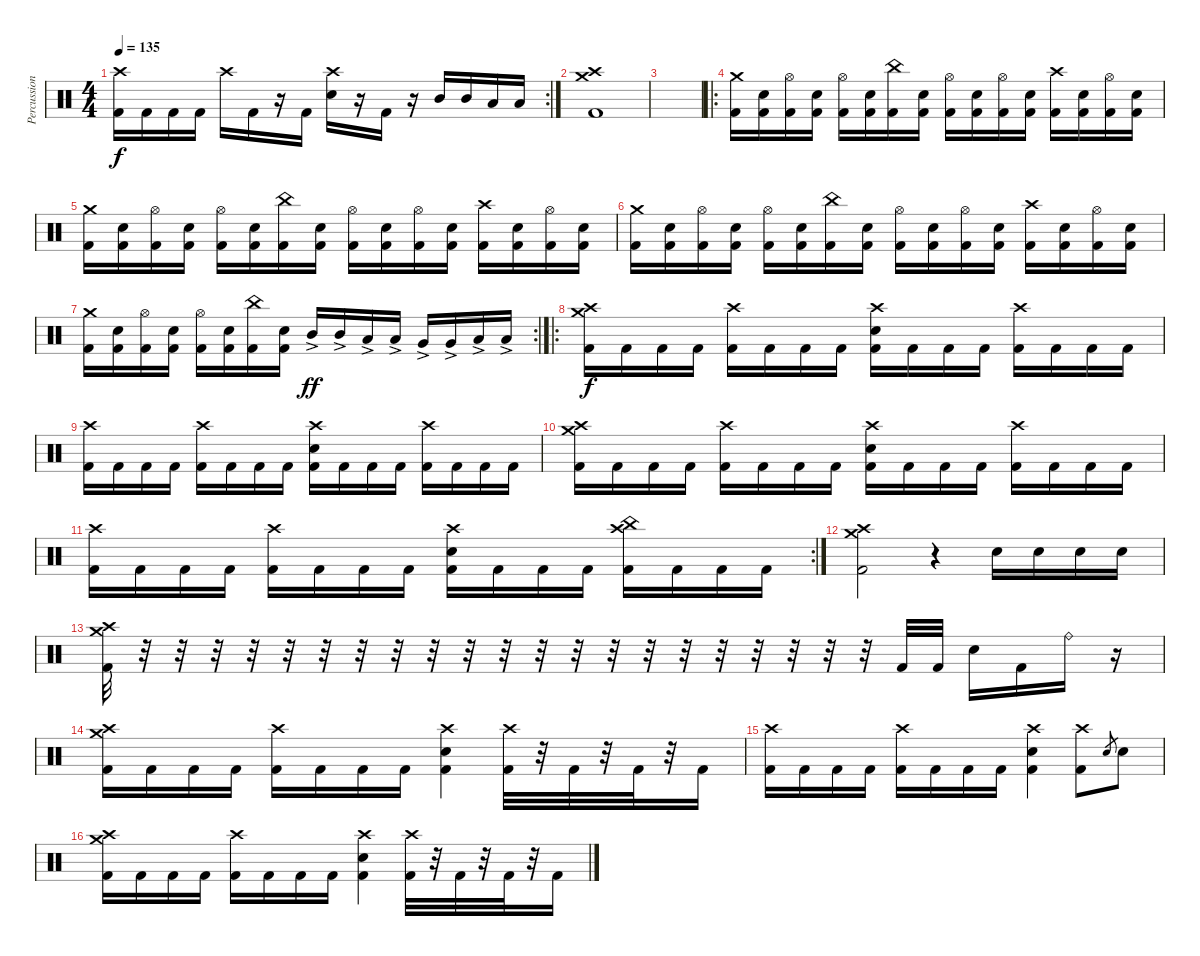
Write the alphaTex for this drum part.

\track ("Percussion" "Percussion") {instrument percussion}
\staff {score}
\articulation defaults
\rc 2
\ts (4 4)
\tempo 135
\clef neutral
\ks c
("Crash high (hit)" "Kick (hit) 2").16{dy f} "Kick (hit) 2".16 "Kick (hit) 2".16 "Kick (hit) 2".16 "Crash high (hit)".16 "Kick (hit) 2".16 r.16 "Kick (hit) 2".16 ("Crash high (hit)" "Snare (hit) 2").16 r.16 "Kick (hit) 2".16 r.16 "Mid Tom (hit)".16 "Mid Tom (hit)".16 "Low Tom (hit)".16 "Low Tom (hit)".16 |
("Crash high (hit)" "Kick (hit) 2" "Crash medium (hit)").1 |
|
\ro
("Crash medium (hit)" "Kick (hit) 2").16 ("Snare (hit) 2" "Kick (hit) 2").16 ("Hi-Hat (open)" "Kick (hit) 2").16 ("Snare (hit) 2" "Kick (hit) 2").16 ("Hi-Hat (open)" "Kick (hit) 2").16 ("Snare (hit) 2" "Kick (hit) 2").16 ("China (hit)" "Kick (hit) 2").16 ("Snare (hit) 2" "Kick (hit) 2").16 ("Hi-Hat (open)" "Kick (hit) 2").16 ("Snare (hit) 2" "Kick (hit) 2").16 ("Hi-Hat (open)" "Kick (hit) 2").16 ("Snare (hit) 2" "Kick (hit) 2").16 ("Crash high (hit)" "Kick (hit) 2").16 ("Snare (hit) 2" "Kick (hit) 2").16 ("Hi-Hat (open)" "Kick (hit) 2").16 ("Snare (hit) 2" "Kick (hit) 2").16 |
("Crash medium (hit)" "Kick (hit) 2").16 ("Snare (hit) 2" "Kick (hit) 2").16 ("Hi-Hat (open)" "Kick (hit) 2").16 ("Snare (hit) 2" "Kick (hit) 2").16 ("Hi-Hat (open)" "Kick (hit) 2").16 ("Snare (hit) 2" "Kick (hit) 2").16 ("China (hit)" "Kick (hit) 2").16 ("Snare (hit) 2" "Kick (hit) 2").16 ("Hi-Hat (open)" "Kick (hit) 2").16 ("Snare (hit) 2" "Kick (hit) 2").16 ("Hi-Hat (open)" "Kick (hit) 2").16 ("Snare (hit) 2" "Kick (hit) 2").16 ("Crash high (hit)" "Kick (hit) 2").16 ("Snare (hit) 2" "Kick (hit) 2").16 ("Hi-Hat (open)" "Kick (hit) 2").16 ("Snare (hit) 2" "Kick (hit) 2").16 |
("Crash medium (hit)" "Kick (hit) 2").16 ("Snare (hit) 2" "Kick (hit) 2").16 ("Hi-Hat (open)" "Kick (hit) 2").16 ("Snare (hit) 2" "Kick (hit) 2").16 ("Hi-Hat (open)" "Kick (hit) 2").16 ("Snare (hit) 2" "Kick (hit) 2").16 ("China (hit)" "Kick (hit) 2").16 ("Snare (hit) 2" "Kick (hit) 2").16 ("Hi-Hat (open)" "Kick (hit) 2").16 ("Snare (hit) 2" "Kick (hit) 2").16 ("Hi-Hat (open)" "Kick (hit) 2").16 ("Snare (hit) 2" "Kick (hit) 2").16 ("Crash high (hit)" "Kick (hit) 2").16 ("Snare (hit) 2" "Kick (hit) 2").16 ("Hi-Hat (open)" "Kick (hit) 2").16 ("Snare (hit) 2" "Kick (hit) 2").16 |
\rc 2
("Crash medium (hit)" "Kick (hit) 2").16 ("Snare (hit) 2" "Kick (hit) 2").16 ("Hi-Hat (open)" "Kick (hit) 2").16 ("Snare (hit) 2" "Kick (hit) 2").16 ("Hi-Hat (open)" "Kick (hit) 2").16 ("Snare (hit) 2" "Kick (hit) 2").16 ("China (hit)" "Kick (hit) 2").16 ("Snare (hit) 2" "Kick (hit) 2").16 "Mid Tom (hit)"{ac}.16{dy ff} "Mid Tom (hit)"{ac}.16 "Low Tom (hit)"{ac}.16 "Low Tom (hit)"{ac}.16 "Very Low Tom (hit)"{ac}.16 "Very Low Tom (hit)"{ac}.16 "Low Floor Tom (hit)"{ac}.16 "Low Floor Tom (hit)"{ac}.16 |
\ro
("Kick (hit) 2" "Crash high (hit)" "Crash medium (hit)").16{dy f} "Kick (hit) 2".16 "Kick (hit) 2".16 "Kick (hit) 2".16 ("Kick (hit) 2" "Crash high (hit)").16 "Kick (hit) 2".16 "Kick (hit) 2".16 "Kick (hit) 2".16 ("Kick (hit) 2" "Snare (hit) 2" "Crash high (hit)").16 "Kick (hit) 2".16 "Kick (hit) 2".16 "Kick (hit) 2".16 ("Kick (hit) 2" "Crash high (hit)").16 "Kick (hit) 2".16 "Kick (hit) 2".16 "Kick (hit) 2".16 |
("Kick (hit) 2" "Crash high (hit)").16 "Kick (hit) 2".16 "Kick (hit) 2".16 "Kick (hit) 2".16 ("Kick (hit) 2" "Crash high (hit)").16 "Kick (hit) 2".16 "Kick (hit) 2".16 "Kick (hit) 2".16 ("Kick (hit) 2" "Snare (hit) 2" "Crash high (hit)").16 "Kick (hit) 2".16 "Kick (hit) 2".16 "Kick (hit) 2".16 ("Kick (hit) 2" "Crash high (hit)").16 "Kick (hit) 2".16 "Kick (hit) 2".16 "Kick (hit) 2".16 |
("Kick (hit) 2" "Crash high (hit)" "Crash medium (hit)").16 "Kick (hit) 2".16 "Kick (hit) 2".16 "Kick (hit) 2".16 ("Kick (hit) 2" "Crash high (hit)").16 "Kick (hit) 2".16 "Kick (hit) 2".16 "Kick (hit) 2".16 ("Kick (hit) 2" "Snare (hit) 2" "Crash high (hit)").16 "Kick (hit) 2".16 "Kick (hit) 2".16 "Kick (hit) 2".16 ("Kick (hit) 2" "Crash high (hit)").16 "Kick (hit) 2".16 "Kick (hit) 2".16 "Kick (hit) 2".16 |
\rc 2
("Kick (hit) 2" "Crash high (hit)").16 "Kick (hit) 2".16 "Kick (hit) 2".16 "Kick (hit) 2".16 ("Kick (hit) 2" "Crash high (hit)").16 "Kick (hit) 2".16 "Kick (hit) 2".16 "Kick (hit) 2".16 ("Kick (hit) 2" "Snare (hit) 2" "Crash high (hit)").16 "Kick (hit) 2".16 "Kick (hit) 2".16 "Kick (hit) 2".16 ("Kick (hit) 2" "China (hit)" "Crash high (hit)").16 "Kick (hit) 2".16 "Kick (hit) 2".16 "Kick (hit) 2".16 |
("Crash high (hit)" "Crash medium (hit)" "Kick (hit) 2").2 r.4 "Snare (hit) 2".16 "Snare (hit) 2".16 "Snare (hit) 2".16 "Snare (hit) 2".16 |
("Crash medium (hit)" "Crash high (hit)" "Kick (hit) 2").32 r.32 r.32 r.32 r.32 r.32 r.32 r.32 r.32 r.32 r.32 r.32 r.32 r.32 r.32 r.32 r.32 r.32 r.32 r.32 r.32 r.32 "Kick (hit) 2".32 "Kick (hit) 2".32 "Snare (hit) 2".16 "Kick (hit) 2".16 "Ride (bell)".16 r.16 |
("Crash high (hit)" "Crash medium (hit)" "Kick (hit) 2").16 "Kick (hit) 2".16 "Kick (hit) 2".16 "Kick (hit) 2".16 ("Crash high (hit)" "Kick (hit) 2").16 "Kick (hit) 2".16 "Kick (hit) 2".16 "Kick (hit) 2".16 ("Crash high (hit)" "Snare (hit) 2" "Kick (hit) 2").4 ("Crash high (hit)" "Kick (hit) 2").32 r.32 "Kick (hit) 2".32 r.32 "Kick (hit) 2".32 r.32 "Kick (hit) 2".16 |
("Crash high (hit)" "Kick (hit) 2").16 "Kick (hit) 2".16 "Kick (hit) 2".16 "Kick (hit) 2".16 ("Crash high (hit)" "Kick (hit) 2").16 "Kick (hit) 2".16 "Kick (hit) 2".16 "Kick (hit) 2".16 ("Crash high (hit)" "Snare (hit) 2" "Kick (hit) 2").4 ("Crash high (hit)" "Kick (hit) 2").8 "Electric Snare (hit)".8{gr} "Electric Snare (hit)".8 |
("Crash high (hit)" "Crash medium (hit)" "Kick (hit) 2").16 "Kick (hit) 2".16 "Kick (hit) 2".16 "Kick (hit) 2".16 ("Crash high (hit)" "Kick (hit) 2").16 "Kick (hit) 2".16 "Kick (hit) 2".16 "Kick (hit) 2".16 ("Crash high (hit)" "Snare (hit) 2" "Kick (hit) 2").4 ("Crash high (hit)" "Kick (hit) 2").32 r.32 "Kick (hit) 2".32 r.32 "Kick (hit) 2".32 r.32 "Kick (hit) 2".16
